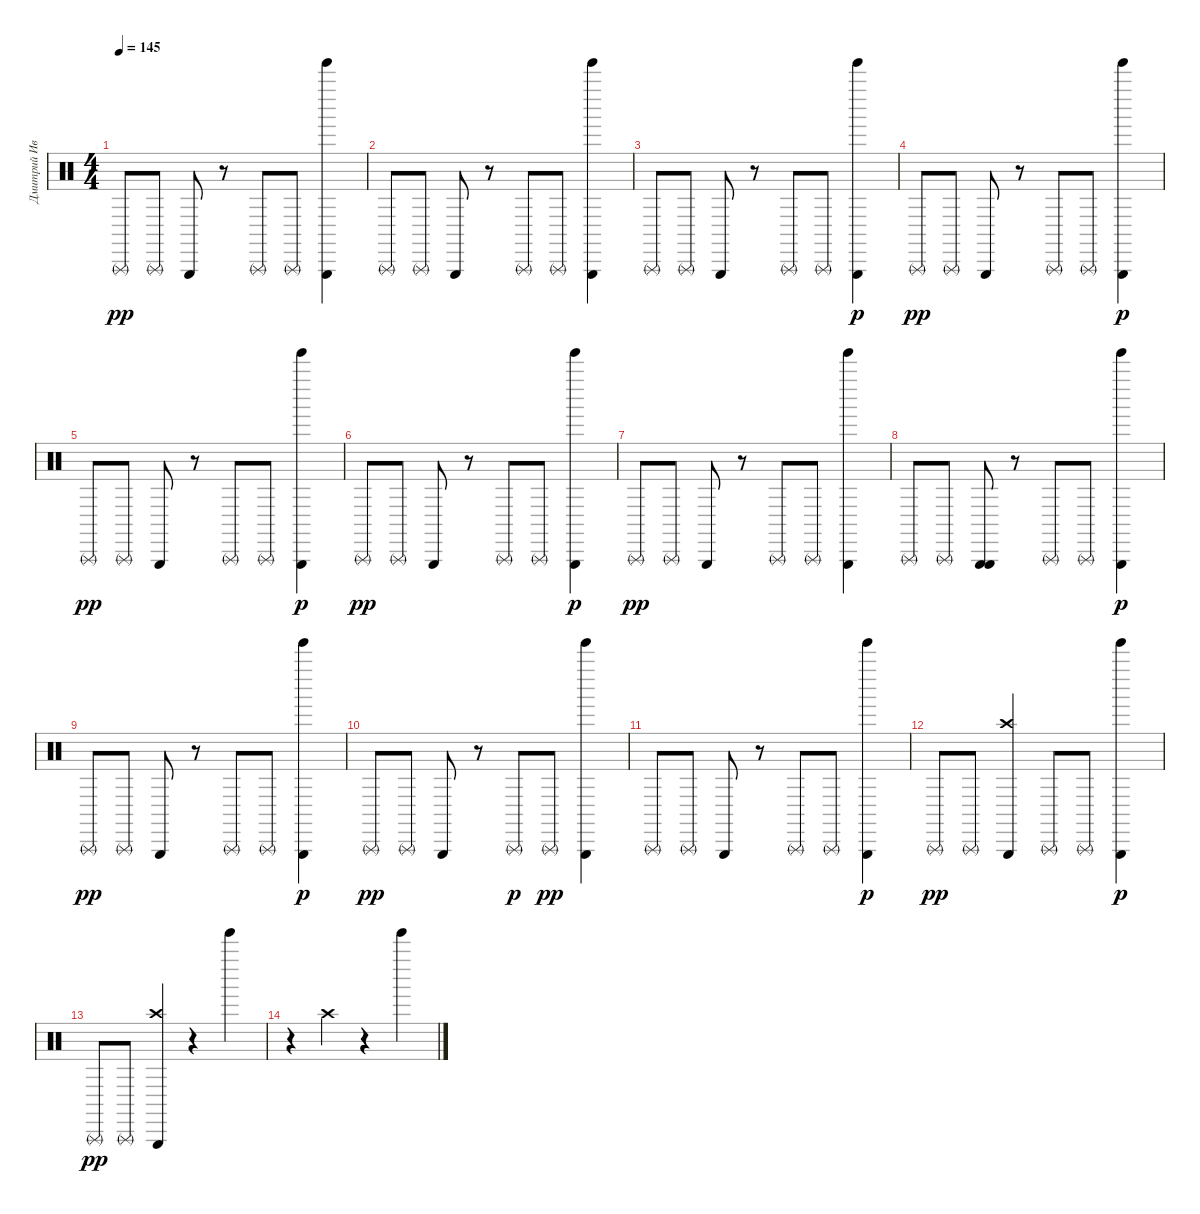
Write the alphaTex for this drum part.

\track ("Дмитрий Иванов" "Дмитрий Ив") {instrument percussion}
\staff {score}
\articulation defaults
\ts (4 4)
\tempo 145
\clef neutral
\ks c "Triangle (rnute)".8{dy pp} "Triangle (rnute)".8 "Triangle (hit)".8
r.8 "Triangle (rnute)".8 "Triangle (rnute)".8 ("Triangle (hit)" "Tinkle Bell (hit)").4 |
"Triangle (rnute)".8 "Triangle (rnute)".8 "Triangle (hit)".8 r.8 "Triangle (rnute)".8 "Triangle (rnute)".8 ("Tinkle Bell (hit)" "Triangle (hit)").4 |
"Triangle (rnute)".8 "Triangle (rnute)".8 "Triangle (hit)".8 r.8 "Triangle (rnute)".8 "Triangle (rnute)".8 ("Tinkle Bell (hit)" "Triangle (hit)").4{dy p} |
"Triangle (rnute)".8{dy pp} "Triangle (rnute)".8 "Triangle (hit)".8 r.8 "Triangle (rnute)".8 "Triangle (rnute)".8 ("Tinkle Bell (hit)" "Triangle (hit)").4{dy p} |
"Triangle (rnute)".8{dy pp} "Triangle (rnute)".8 "Triangle (hit)".8 r.8 "Triangle (rnute)".8 "Triangle (rnute)".8 ("Tinkle Bell (hit)" "Triangle (hit)").4{dy p} |
"Triangle (rnute)".8{dy pp} "Triangle (rnute)".8 "Triangle (hit)".8 r.8 "Triangle (rnute)".8 "Triangle (rnute)".8 ("Tinkle Bell (hit)" "Triangle (hit)").4{dy p} |
"Triangle (rnute)".8{dy pp} "Triangle (rnute)".8 "Triangle (hit)".8 r.8 "Triangle (rnute)".8 "Triangle (rnute)".8 ("Tinkle Bell (hit)" "Triangle (hit)").4 |
"Triangle (rnute)".8 "Triangle (rnute)".8 ("Triangle (hit)" "Triangle (hit)").8 r.8 "Triangle (rnute)".8 "Triangle (rnute)".8 ("Tinkle Bell (hit)" "Triangle (hit)").4{dy p} |
"Triangle (rnute)".8{dy pp} "Triangle (rnute)".8 "Triangle (hit)".8 r.8 "Triangle (rnute)".8 "Triangle (rnute)".8 ("Tinkle Bell (hit)" "Triangle (hit)").4{dy p} |
"Triangle (rnute)".8{dy pp} "Triangle (rnute)".8 "Triangle (hit)".8 r.8 "Triangle (rnute)".8{dy p} "Triangle (rnute)".8{dy pp} ("Tinkle Bell (hit)" "Triangle (hit)").4 |
"Triangle (rnute)".8 "Triangle (rnute)".8 "Triangle (hit)".8 r.8 "Triangle (rnute)".8 "Triangle (rnute)".8 ("Tinkle Bell (hit)" "Triangle (hit)").4{dy p} |
"Triangle (rnute)".8{dy pp} "Triangle (rnute)".8 ("Crash high (hit)" "Triangle (hit)").4 "Triangle (rnute)".8 "Triangle (rnute)".8 ("Tinkle Bell (hit)" "Triangle (hit)").4{dy p} |
"Triangle (rnute)".8{dy pp} "Triangle (rnute)".8 ("Crash high (hit)" "Triangle (hit)").4 r.4 "Tinkle Bell (hit)".4 |
r.4 "Crash high (hit)".4 r.4 "Tinkle Bell (hit)".4
